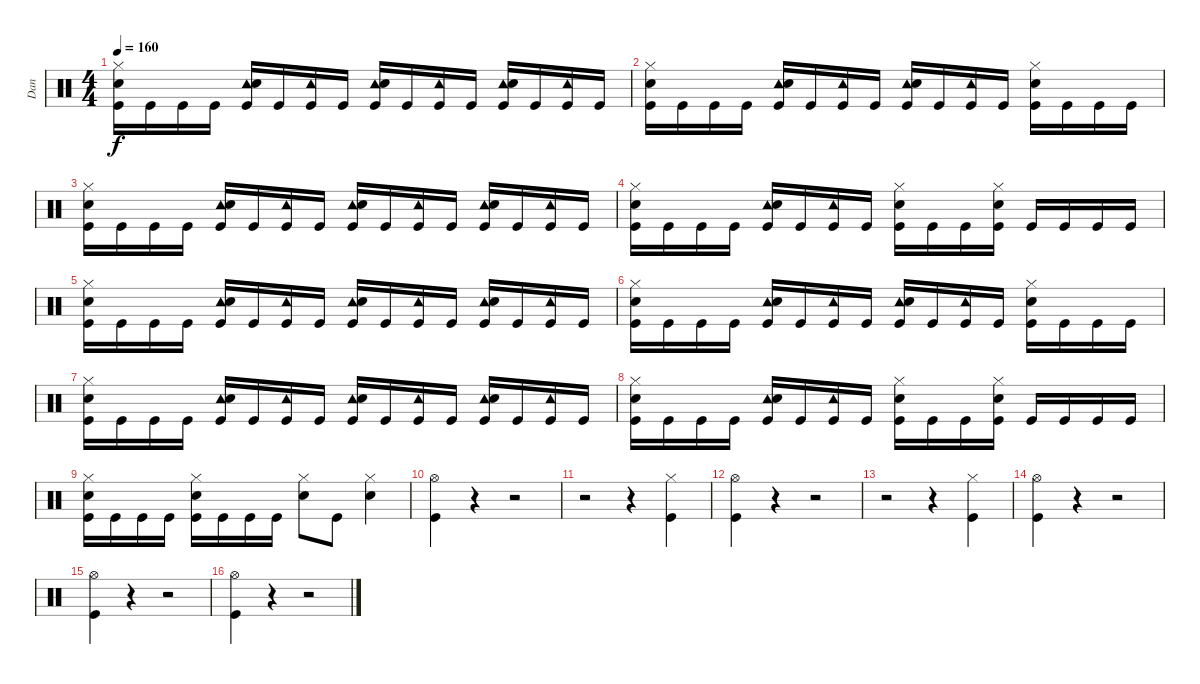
\track ("Dan" "Dan") {instrument percussion}
\staff {score}
\articulation defaults
\ts (4 4)
\tempo 160
\clef neutral
\ks c
("Hi-Hat (closed)" "Snare (hit) 2" "Kick (hit)").16{dy f} "Kick (hit)".16 "Kick (hit)".16 "Kick (hit)".16 ("Tambourine (hit)" "Snare (hit) 2" "Kick (hit)").16 "Kick (hit)".16 ("Tambourine (hit)" "Kick (hit)").16 "Kick (hit)".16 ("Tambourine (hit)" "Snare (hit) 2" "Kick (hit)").16 "Kick (hit)".16 ("Tambourine (hit)" "Kick (hit)").16 "Kick (hit)".16 ("Tambourine (hit)" "Snare (hit) 2" "Kick (hit)").16 "Kick (hit)".16 ("Tambourine (hit)" "Kick (hit)").16 "Kick (hit)".16 |
("Hi-Hat (closed)" "Snare (hit) 2" "Kick (hit)").16 "Kick (hit)".16 "Kick (hit)".16 "Kick (hit)".16 ("Tambourine (hit)" "Snare (hit) 2" "Kick (hit)").16 "Kick (hit)".16 ("Tambourine (hit)" "Kick (hit)").16 "Kick (hit)".16 ("Tambourine (hit)" "Snare (hit) 2" "Kick (hit)").16 "Kick (hit)".16 ("Tambourine (hit)" "Kick (hit)").16 "Kick (hit)".16 ("Hi-Hat (closed)" "Snare (hit) 2" "Kick (hit)").16 "Kick (hit)".16 "Kick (hit)".16 "Kick (hit)".16 |
("Hi-Hat (closed)" "Snare (hit) 2" "Kick (hit)").16 "Kick (hit)".16 "Kick (hit)".16 "Kick (hit)".16 ("Tambourine (hit)" "Snare (hit) 2" "Kick (hit)").16 "Kick (hit)".16 ("Tambourine (hit)" "Kick (hit)").16 "Kick (hit)".16 ("Tambourine (hit)" "Snare (hit) 2" "Kick (hit)").16 "Kick (hit)".16 ("Tambourine (hit)" "Kick (hit)").16 "Kick (hit)".16 ("Tambourine (hit)" "Snare (hit) 2" "Kick (hit)").16 "Kick (hit)".16 ("Tambourine (hit)" "Kick (hit)").16 "Kick (hit)".16 |
("Hi-Hat (closed)" "Snare (hit) 2" "Kick (hit)").16 "Kick (hit)".16 "Kick (hit)".16 "Kick (hit)".16 ("Tambourine (hit)" "Snare (hit) 2" "Kick (hit)").16 "Kick (hit)".16 ("Tambourine (hit)" "Kick (hit)").16 "Kick (hit)".16 ("Hi-Hat (closed)" "Snare (hit) 2" "Kick (hit)").16 "Kick (hit)".16 "Kick (hit)".16 ("Hi-Hat (closed)" "Snare (hit) 2" "Kick (hit)").16 "Kick (hit)".16 "Kick (hit)".16 "Kick (hit)".16 "Kick (hit)".16 |
("Hi-Hat (closed)" "Snare (hit) 2" "Kick (hit)").16 "Kick (hit)".16 "Kick (hit)".16 "Kick (hit)".16 ("Tambourine (hit)" "Snare (hit) 2" "Kick (hit)").16 "Kick (hit)".16 ("Tambourine (hit)" "Kick (hit)").16 "Kick (hit)".16 ("Tambourine (hit)" "Snare (hit) 2" "Kick (hit)").16 "Kick (hit)".16 ("Tambourine (hit)" "Kick (hit)").16 "Kick (hit)".16 ("Tambourine (hit)" "Snare (hit) 2" "Kick (hit)").16 "Kick (hit)".16 ("Tambourine (hit)" "Kick (hit)").16 "Kick (hit)".16 |
("Hi-Hat (closed)" "Snare (hit) 2" "Kick (hit)").16 "Kick (hit)".16 "Kick (hit)".16 "Kick (hit)".16 ("Tambourine (hit)" "Snare (hit) 2" "Kick (hit)").16 "Kick (hit)".16 ("Tambourine (hit)" "Kick (hit)").16 "Kick (hit)".16 ("Tambourine (hit)" "Snare (hit) 2" "Kick (hit)").16 "Kick (hit)".16 ("Tambourine (hit)" "Kick (hit)").16 "Kick (hit)".16 ("Hi-Hat (closed)" "Snare (hit) 2" "Kick (hit)").16 "Kick (hit)".16 "Kick (hit)".16 "Kick (hit)".16 |
("Hi-Hat (closed)" "Snare (hit) 2" "Kick (hit)").16 "Kick (hit)".16 "Kick (hit)".16 "Kick (hit)".16 ("Tambourine (hit)" "Snare (hit) 2" "Kick (hit)").16 "Kick (hit)".16 ("Tambourine (hit)" "Kick (hit)").16 "Kick (hit)".16 ("Tambourine (hit)" "Snare (hit) 2" "Kick (hit)").16 "Kick (hit)".16 ("Tambourine (hit)" "Kick (hit)").16 "Kick (hit)".16 ("Tambourine (hit)" "Snare (hit) 2" "Kick (hit)").16 "Kick (hit)".16 ("Tambourine (hit)" "Kick (hit)").16 "Kick (hit)".16 |
("Hi-Hat (closed)" "Snare (hit) 2" "Kick (hit)").16 "Kick (hit)".16 "Kick (hit)".16 "Kick (hit)".16 ("Tambourine (hit)" "Snare (hit) 2" "Kick (hit)").16 "Kick (hit)".16 ("Tambourine (hit)" "Kick (hit)").16 "Kick (hit)".16 ("Hi-Hat (closed)" "Snare (hit) 2" "Kick (hit)").16 "Kick (hit)".16 "Kick (hit)".16 ("Hi-Hat (closed)" "Snare (hit) 2" "Kick (hit)").16 "Kick (hit)".16 "Kick (hit)".16 "Kick (hit)".16 "Kick (hit)".16 |
("Hi-Hat (closed)" "Snare (hit) 2" "Kick (hit)").16 "Kick (hit)".16 "Kick (hit)".16 "Kick (hit)".16 ("Hi-Hat (closed)" "Snare (hit) 2" "Kick (hit)").16 "Kick (hit)".16 "Kick (hit)".16 "Kick (hit)".16 ("Hi-Hat (closed)" "Snare (hit) 2").8 "Kick (hit)".8 ("Hi-Hat (closed)" "Snare (hit) 2").4 |
("Hi-Hat (open)" "Kick (hit)").4 r.4 r.2 |
r.2 r.4 ("Hi-Hat (closed)" "Kick (hit)").4 |
("Hi-Hat (open)" "Kick (hit)").4 r.4 r.2 |
r.2 r.4 ("Hi-Hat (closed)" "Kick (hit)").4 |
("Hi-Hat (open)" "Kick (hit)").4 r.4 r.2 |
("Hi-Hat (open)" "Kick (hit)").4 r.4 r.2 |
("Hi-Hat (open)" "Kick (hit)").4 r.4 r.2
